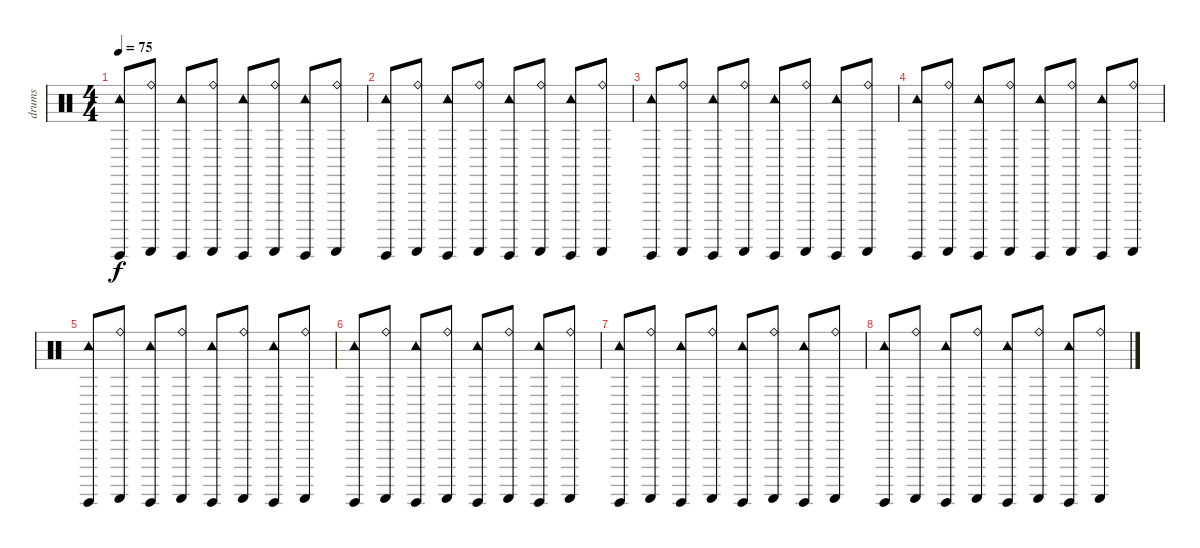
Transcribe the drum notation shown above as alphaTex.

\track ("drums" "drums") {instrument percussion}
\staff {score}
\articulation defaults
\ts (4 4)
\tempo 75
\clef neutral
\ks c
("Tambourine (hit)" "Guiro (hit)").8{dy f volume 13} ("Ride (bell)" "Guiro (scrap-return)").8 ("Tambourine (hit)" "Guiro (hit)").8 ("Ride (bell)" "Guiro (scrap-return)").8 ("Tambourine (hit)" "Guiro (hit)").8 ("Ride (bell)" "Guiro (scrap-return)").8 ("Tambourine (hit)" "Guiro (hit)").8 ("Ride (bell)" "Guiro (scrap-return)").8 |
("Tambourine (hit)" "Guiro (hit)").8{volume 13} ("Ride (bell)" "Guiro (scrap-return)").8 ("Tambourine (hit)" "Guiro (hit)").8 ("Ride (bell)" "Guiro (scrap-return)").8 ("Tambourine (hit)" "Guiro (hit)").8 ("Ride (bell)" "Guiro (scrap-return)").8 ("Tambourine (hit)" "Guiro (hit)").8 ("Ride (bell)" "Guiro (scrap-return)").8 |
("Tambourine (hit)" "Guiro (hit)").8{volume 13} ("Ride (bell)" "Guiro (scrap-return)").8 ("Tambourine (hit)" "Guiro (hit)").8 ("Ride (bell)" "Guiro (scrap-return)").8 ("Tambourine (hit)" "Guiro (hit)").8 ("Ride (bell)" "Guiro (scrap-return)").8 ("Tambourine (hit)" "Guiro (hit)").8 ("Ride (bell)" "Guiro (scrap-return)").8 |
("Tambourine (hit)" "Guiro (hit)").8{volume 13} ("Ride (bell)" "Guiro (scrap-return)").8 ("Tambourine (hit)" "Guiro (hit)").8 ("Ride (bell)" "Guiro (scrap-return)").8 ("Tambourine (hit)" "Guiro (hit)").8 ("Ride (bell)" "Guiro (scrap-return)").8 ("Tambourine (hit)" "Guiro (hit)").8 ("Ride (bell)" "Guiro (scrap-return)").8 |
("Tambourine (hit)" "Guiro (hit)").8{volume 13} ("Ride (bell)" "Guiro (scrap-return)").8 ("Tambourine (hit)" "Guiro (hit)").8 ("Ride (bell)" "Guiro (scrap-return)").8 ("Tambourine (hit)" "Guiro (hit)").8 ("Ride (bell)" "Guiro (scrap-return)").8 ("Tambourine (hit)" "Guiro (hit)").8 ("Ride (bell)" "Guiro (scrap-return)").8 |
("Tambourine (hit)" "Guiro (hit)").8{volume 13} ("Ride (bell)" "Guiro (scrap-return)").8 ("Tambourine (hit)" "Guiro (hit)").8 ("Ride (bell)" "Guiro (scrap-return)").8 ("Tambourine (hit)" "Guiro (hit)").8 ("Ride (bell)" "Guiro (scrap-return)").8 ("Tambourine (hit)" "Guiro (hit)").8 ("Ride (bell)" "Guiro (scrap-return)").8 |
("Tambourine (hit)" "Guiro (hit)").8{volume 13} ("Ride (bell)" "Guiro (scrap-return)").8 ("Tambourine (hit)" "Guiro (hit)").8 ("Ride (bell)" "Guiro (scrap-return)").8 ("Tambourine (hit)" "Guiro (hit)").8 ("Ride (bell)" "Guiro (scrap-return)").8 ("Tambourine (hit)" "Guiro (hit)").8 ("Ride (bell)" "Guiro (scrap-return)").8 |
("Tambourine (hit)" "Guiro (hit)").8 ("Ride (bell)" "Guiro (scrap-return)").8 ("Tambourine (hit)" "Guiro (hit)").8 ("Ride (bell)" "Guiro (scrap-return)").8 ("Tambourine (hit)" "Guiro (hit)").8 ("Ride (bell)" "Guiro (scrap-return)").8 ("Tambourine (hit)" "Guiro (hit)").8 ("Ride (bell)" "Guiro (scrap-return)").8
